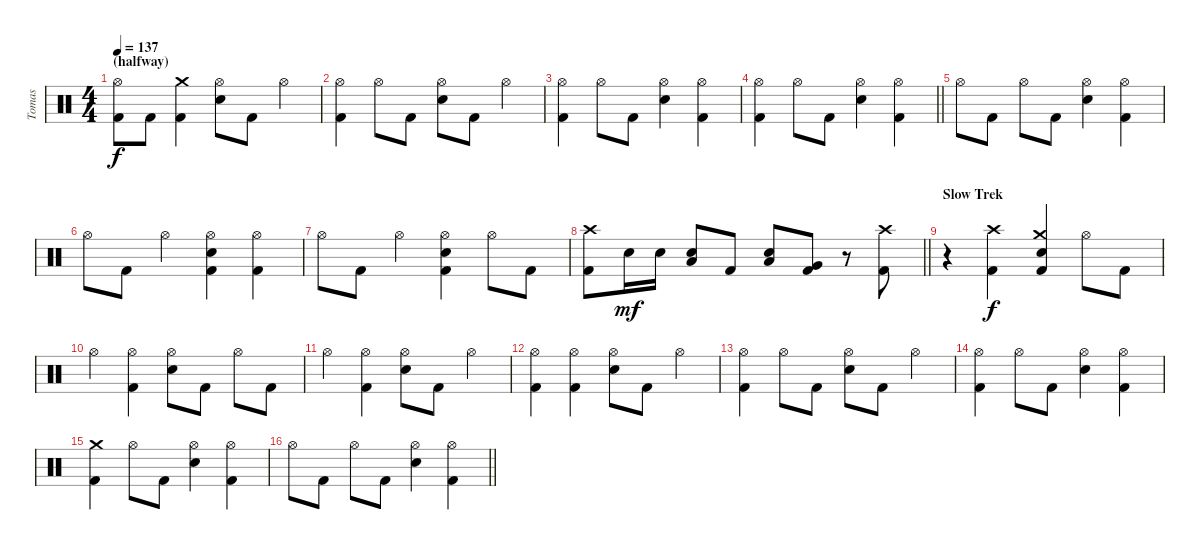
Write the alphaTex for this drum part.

\track ("Tomas" "Tomas") {instrument percussion}
\staff {score}
\articulation defaults
\ts (4 4)
\section ("" "(halfway)")
\tempo 137
\clef neutral
\ks c
("Hi-Hat (open)" "Kick (hit) 2").8{dy f} "Kick (hit) 2".8 ("Crash medium (hit)" "Kick (hit) 2").4 ("Hi-Hat (open)" "Electric Snare (hit)").8 "Kick (hit) 2".8 "Hi-Hat (open)".4 |
("Hi-Hat (open)" "Kick (hit) 2").4 "Hi-Hat (open)".8 "Kick (hit) 2".8 ("Hi-Hat (open)" "Electric Snare (hit)").8 "Kick (hit) 2".8 "Hi-Hat (open)".4 |
("Hi-Hat (open)" "Kick (hit) 2").4 "Hi-Hat (open)".8 "Kick (hit) 2".8 ("Hi-Hat (open)" "Electric Snare (hit)").4 ("Hi-Hat (open)" "Kick (hit) 2").4 |
\barLineRight lightlight
("Hi-Hat (open)" "Kick (hit) 2").4 "Hi-Hat (open)".8 "Kick (hit) 2".8 ("Hi-Hat (open)" "Electric Snare (hit)").4 ("Hi-Hat (open)" "Kick (hit) 2").4 |
"Hi-Hat (open)".8 "Kick (hit) 2".8 "Hi-Hat (open)".8 "Kick (hit) 2".8 ("Hi-Hat (open)" "Electric Snare (hit)").4 ("Hi-Hat (open)" "Kick (hit) 2").4 |
"Hi-Hat (open)".8 "Kick (hit) 2".8 "Hi-Hat (open)".4 ("Hi-Hat (open)" "Electric Snare (hit)" "Kick (hit) 2").4 ("Hi-Hat (open)" "Kick (hit) 2").4 |
"Hi-Hat (open)".8 "Kick (hit) 2".8 "Hi-Hat (open)".4 ("Hi-Hat (open)" "Electric Snare (hit)" "Kick (hit) 2").4 "Hi-Hat (open)".8 "Kick (hit) 2".8 |
\barLineRight lightlight
("Crash high (hit)" "Kick (hit) 2").8 "Electric Snare (hit)".16{dy mf} "Electric Snare (hit)".16 ("Low Tom (hit)" "Electric Snare (hit)").8 "Kick (hit) 2".8 ("Low Tom (hit)" "Electric Snare (hit)").8 ("Very Low Tom (hit)" "Kick (hit) 2").8 r.8 ("Crash high (hit)" "Kick (hit) 2").8 |
\section ("" "Slow Trek")
r.4 ("Crash high (hit)" "Kick (hit) 2").4{dy f} ("Crash medium (hit)" "Electric Snare (hit)" "Kick (hit) 2").4 "Hi-Hat (open)".8 "Kick (hit) 2".8 |
"Hi-Hat (open)".4 ("Hi-Hat (open)" "Kick (hit) 2").4 ("Hi-Hat (open)" "Electric Snare (hit)").8 "Kick (hit) 2".8 "Hi-Hat (open)".8 "Kick (hit) 2".8 |
"Hi-Hat (open)".4 ("Hi-Hat (open)" "Kick (hit) 2").4 ("Hi-Hat (open)" "Electric Snare (hit)").8 "Kick (hit) 2".8 "Hi-Hat (open)".4 |
("Hi-Hat (open)" "Kick (hit) 2").4 ("Hi-Hat (open)" "Kick (hit) 2").4 ("Hi-Hat (open)" "Electric Snare (hit)").8 "Kick (hit) 2".8 "Hi-Hat (open)".4 |
("Hi-Hat (open)" "Kick (hit) 2").4 "Hi-Hat (open)".8 "Kick (hit) 2".8 ("Hi-Hat (open)" "Electric Snare (hit)").8 "Kick (hit) 2".8 "Hi-Hat (open)".4 |
("Hi-Hat (open)" "Kick (hit) 2").4 "Hi-Hat (open)".8 "Kick (hit) 2".8 ("Hi-Hat (open)" "Electric Snare (hit)").4 ("Hi-Hat (open)" "Kick (hit) 2").4 |
("Crash medium (hit)" "Kick (hit) 2").4 "Hi-Hat (open)".8 "Kick (hit) 2".8 ("Hi-Hat (open)" "Electric Snare (hit)").4 ("Hi-Hat (open)" "Kick (hit) 2").4 |
\barLineRight lightlight "Hi-Hat (open)".8 "Kick (hit) 2".8 "Hi-Hat (open)".8 "Kick (hit) 2".8
("Hi-Hat (open)" "Electric Snare (hit)").4 ("Hi-Hat (open)" "Kick (hit) 2").4
